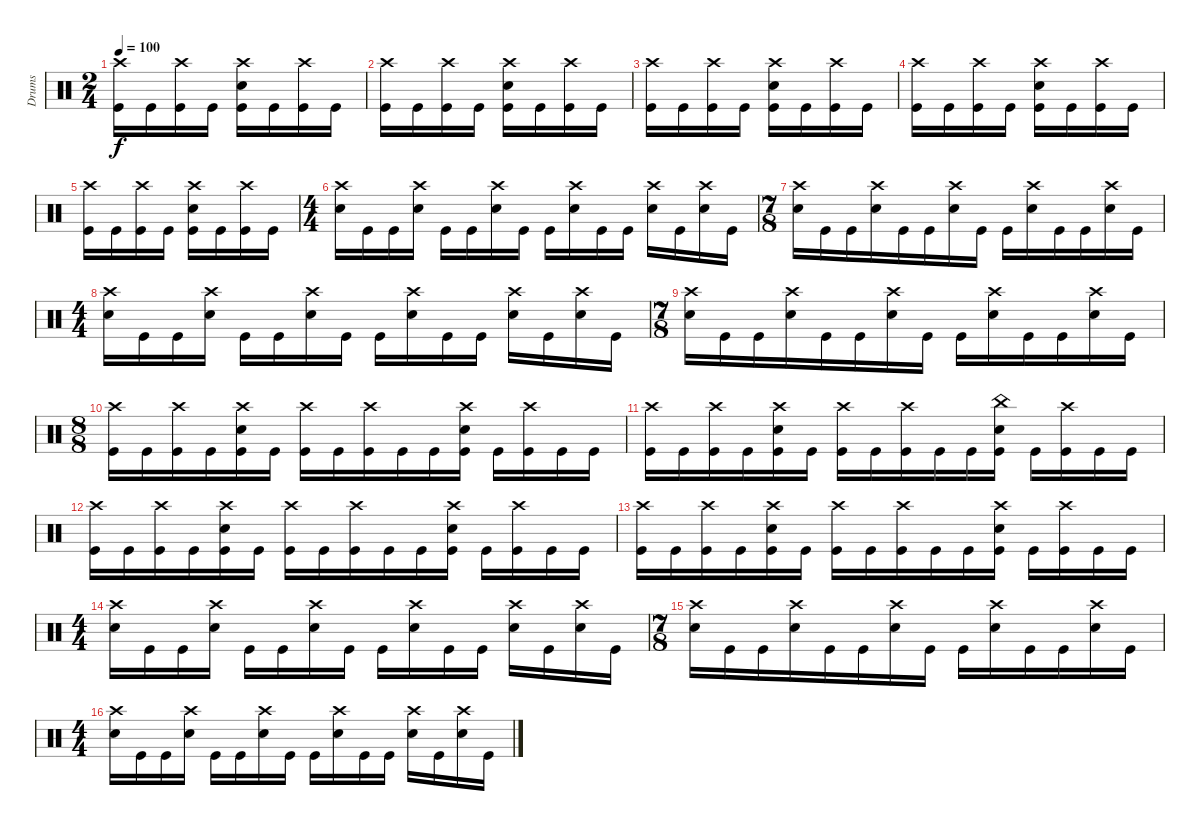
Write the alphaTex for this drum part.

\track ("Drums" "Drums") {instrument percussion}
\staff {score}
\articulation defaults
\ts (2 4)
\tempo 100
\clef neutral
\ks c
("Crash high (hit)" "Kick (hit)").16{dy f} "Kick (hit)".16 ("Crash high (hit)" "Kick (hit)").16 "Kick (hit)".16 ("Crash high (hit)" "Electric Snare (hit)" "Kick (hit)").16 "Kick (hit)".16 ("Crash high (hit)" "Kick (hit)").16 "Kick (hit)".16 |
("Crash high (hit)" "Kick (hit)").16 "Kick (hit)".16 ("Crash high (hit)" "Kick (hit)").16 "Kick (hit)".16 ("Crash high (hit)" "Electric Snare (hit)" "Kick (hit)").16 "Kick (hit)".16 ("Crash high (hit)" "Kick (hit)").16 "Kick (hit)".16 |
("Crash high (hit)" "Kick (hit)").16 "Kick (hit)".16 ("Crash high (hit)" "Kick (hit)").16 "Kick (hit)".16 ("Crash high (hit)" "Electric Snare (hit)" "Kick (hit)").16 "Kick (hit)".16 ("Crash high (hit)" "Kick (hit)").16 "Kick (hit)".16 |
("Crash high (hit)" "Kick (hit)").16 "Kick (hit)".16 ("Crash high (hit)" "Kick (hit)").16 "Kick (hit)".16 ("Crash high (hit)" "Electric Snare (hit)" "Kick (hit)").16 "Kick (hit)".16 ("Crash high (hit)" "Kick (hit)").16 "Kick (hit)".16 |
("Crash high (hit)" "Kick (hit)").16 "Kick (hit)".16 ("Crash high (hit)" "Kick (hit)").16 "Kick (hit)".16 ("Crash high (hit)" "Electric Snare (hit)" "Kick (hit)").16 "Kick (hit)".16 ("Crash high (hit)" "Kick (hit)").16 "Kick (hit)".16 |
\ts (4 4)
("Crash high (hit)" "Electric Snare (hit)").16 "Kick (hit)".16 "Kick (hit)".16 ("Crash high (hit)" "Electric Snare (hit)").16 "Kick (hit)".16 "Kick (hit)".16 ("Crash high (hit)" "Electric Snare (hit)").16 "Kick (hit)".16 "Kick (hit)".16 ("Crash high (hit)" "Electric Snare (hit)").16 "Kick (hit)".16 "Kick (hit)".16 ("Crash high (hit)" "Electric Snare (hit)").16 "Kick (hit)".16 ("Crash high (hit)" "Electric Snare (hit)").16 "Kick (hit)".16 |
\ts (7 8)
("Crash high (hit)" "Electric Snare (hit)").16 "Kick (hit)".16 "Kick (hit)".16 ("Crash high (hit)" "Electric Snare (hit)").16 "Kick (hit)".16 "Kick (hit)".16 ("Crash high (hit)" "Electric Snare (hit)").16 "Kick (hit)".16 "Kick (hit)".16 ("Crash high (hit)" "Electric Snare (hit)").16 "Kick (hit)".16 "Kick (hit)".16 ("Crash high (hit)" "Electric Snare (hit)").16 "Kick (hit)".16 |
\ts (4 4)
("Crash high (hit)" "Electric Snare (hit)").16 "Kick (hit)".16 "Kick (hit)".16 ("Crash high (hit)" "Electric Snare (hit)").16 "Kick (hit)".16 "Kick (hit)".16 ("Crash high (hit)" "Electric Snare (hit)").16 "Kick (hit)".16 "Kick (hit)".16 ("Crash high (hit)" "Electric Snare (hit)").16 "Kick (hit)".16 "Kick (hit)".16 ("Crash high (hit)" "Electric Snare (hit)").16 "Kick (hit)".16 ("Crash high (hit)" "Electric Snare (hit)").16 "Kick (hit)".16 |
\ts (7 8)
("Crash high (hit)" "Electric Snare (hit)").16 "Kick (hit)".16 "Kick (hit)".16 ("Crash high (hit)" "Electric Snare (hit)").16 "Kick (hit)".16 "Kick (hit)".16 ("Crash high (hit)" "Electric Snare (hit)").16 "Kick (hit)".16 "Kick (hit)".16 ("Crash high (hit)" "Electric Snare (hit)").16 "Kick (hit)".16 "Kick (hit)".16 ("Crash high (hit)" "Electric Snare (hit)").16 "Kick (hit)".16 |
\ts (8 8)
("Crash high (hit)" "Kick (hit)").16 "Kick (hit)".16 ("Crash high (hit)" "Kick (hit)").16 "Kick (hit)".16 ("Crash high (hit)" "Electric Snare (hit)" "Kick (hit)").16 "Kick (hit)".16 ("Crash high (hit)" "Kick (hit)").16 "Kick (hit)".16 ("Crash high (hit)" "Kick (hit)").16 "Kick (hit)".16 "Kick (hit)".16 ("Crash high (hit)" "Electric Snare (hit)" "Kick (hit)").16 "Kick (hit)".16 ("Crash high (hit)" "Kick (hit)").16 "Kick (hit)".16 "Kick (hit)".16 |
("Crash high (hit)" "Kick (hit)").16 "Kick (hit)".16 ("Crash high (hit)" "Kick (hit)").16 "Kick (hit)".16 ("Crash high (hit)" "Electric Snare (hit)" "Kick (hit)").16 "Kick (hit)".16 ("Crash high (hit)" "Kick (hit)").16 "Kick (hit)".16 ("Crash high (hit)" "Kick (hit)").16 "Kick (hit)".16 "Kick (hit)".16 ("China (hit)" "Electric Snare (hit)" "Kick (hit)").16 "Kick (hit)".16 ("Crash high (hit)" "Kick (hit)").16 "Kick (hit)".16 "Kick (hit)".16 |
("Crash high (hit)" "Kick (hit)").16 "Kick (hit)".16 ("Crash high (hit)" "Kick (hit)").16 "Kick (hit)".16 ("Crash high (hit)" "Electric Snare (hit)" "Kick (hit)").16 "Kick (hit)".16 ("Crash high (hit)" "Kick (hit)").16 "Kick (hit)".16 ("Crash high (hit)" "Kick (hit)").16 "Kick (hit)".16 "Kick (hit)".16 ("Crash high (hit)" "Electric Snare (hit)" "Kick (hit)").16 "Kick (hit)".16 ("Crash high (hit)" "Kick (hit)").16 "Kick (hit)".16 "Kick (hit)".16 |
("Crash high (hit)" "Kick (hit)").16 "Kick (hit)".16 ("Crash high (hit)" "Kick (hit)").16 "Kick (hit)".16 ("Crash high (hit)" "Electric Snare (hit)" "Kick (hit)").16 "Kick (hit)".16 ("Crash high (hit)" "Kick (hit)").16 "Kick (hit)".16 ("Crash high (hit)" "Kick (hit)").16 "Kick (hit)".16 "Kick (hit)".16 ("Crash high (hit)" "Electric Snare (hit)" "Kick (hit)").16 "Kick (hit)".16 ("Crash high (hit)" "Kick (hit)").16 "Kick (hit)".16 "Kick (hit)".16 |
\ts (4 4)
("Crash high (hit)" "Electric Snare (hit)").16 "Kick (hit)".16 "Kick (hit)".16 ("Crash high (hit)" "Electric Snare (hit)").16 "Kick (hit)".16 "Kick (hit)".16 ("Crash high (hit)" "Electric Snare (hit)").16 "Kick (hit)".16 "Kick (hit)".16 ("Crash high (hit)" "Electric Snare (hit)").16 "Kick (hit)".16 "Kick (hit)".16 ("Crash high (hit)" "Electric Snare (hit)").16 "Kick (hit)".16 ("Crash high (hit)" "Electric Snare (hit)").16 "Kick (hit)".16 |
\ts (7 8)
("Crash high (hit)" "Electric Snare (hit)").16 "Kick (hit)".16 "Kick (hit)".16 ("Crash high (hit)" "Electric Snare (hit)").16 "Kick (hit)".16 "Kick (hit)".16 ("Crash high (hit)" "Electric Snare (hit)").16 "Kick (hit)".16 "Kick (hit)".16 ("Crash high (hit)" "Electric Snare (hit)").16 "Kick (hit)".16 "Kick (hit)".16 ("Crash high (hit)" "Electric Snare (hit)").16 "Kick (hit)".16 |
\ts (4 4)
("Crash high (hit)" "Electric Snare (hit)").16 "Kick (hit)".16 "Kick (hit)".16 ("Crash high (hit)" "Electric Snare (hit)").16 "Kick (hit)".16 "Kick (hit)".16 ("Crash high (hit)" "Electric Snare (hit)").16 "Kick (hit)".16 "Kick (hit)".16 ("Crash high (hit)" "Electric Snare (hit)").16 "Kick (hit)".16 "Kick (hit)".16 ("Crash high (hit)" "Electric Snare (hit)").16 "Kick (hit)".16 ("Crash high (hit)" "Electric Snare (hit)").16 "Kick (hit)".16
